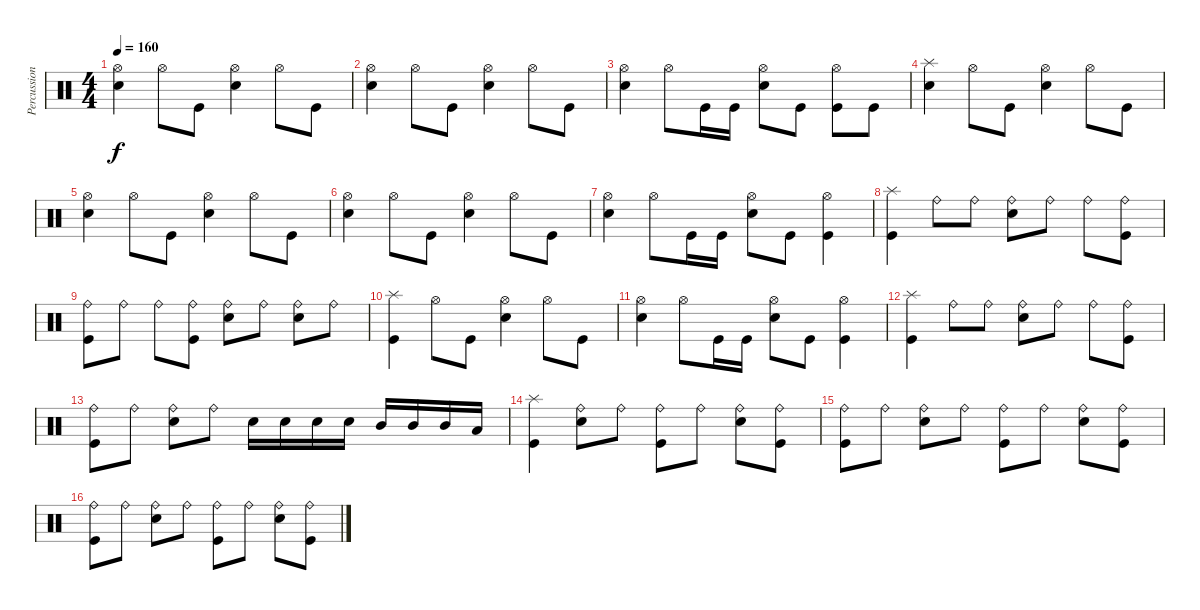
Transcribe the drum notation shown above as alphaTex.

\track ("Percussions" "Percussion") {instrument percussion}
\staff {score}
\articulation defaults
\ts (4 4)
\tempo 160
\clef neutral
\ks c
("Electric Snare (hit)" "Hi-Hat (open)").4{dy f} "Hi-Hat (open)".8 "Kick (hit)".8 ("Electric Snare (hit)" "Hi-Hat (open)").4 "Hi-Hat (open)".8 "Kick (hit)".8 |
("Electric Snare (hit)" "Hi-Hat (open)").4 "Hi-Hat (open)".8 "Kick (hit)".8 ("Electric Snare (hit)" "Hi-Hat (open)").4 "Hi-Hat (open)".8 "Kick (hit)".8 |
("Electric Snare (hit)" "Hi-Hat (open)").4 "Hi-Hat (open)".8 "Kick (hit)".16 "Kick (hit)".16 ("Electric Snare (hit)" "Hi-Hat (open)").8 "Kick (hit)".8 ("Kick (hit)" "Hi-Hat (open)").8 "Kick (hit)".8 |
("Electric Snare (hit)" "Splash (hit)").4 "Hi-Hat (open)".8 "Kick (hit)".8 ("Electric Snare (hit)" "Hi-Hat (open)").4 "Hi-Hat (open)".8 "Kick (hit)".8 |
("Electric Snare (hit)" "Hi-Hat (open)").4 "Hi-Hat (open)".8 "Kick (hit)".8 ("Electric Snare (hit)" "Hi-Hat (open)").4 "Hi-Hat (open)".8 "Kick (hit)".8 |
("Electric Snare (hit)" "Hi-Hat (open)").4 "Hi-Hat (open)".8 "Kick (hit)".8 ("Electric Snare (hit)" "Hi-Hat (open)").4 "Hi-Hat (open)".8 "Kick (hit)".8 |
("Electric Snare (hit)" "Hi-Hat (open)").4 "Hi-Hat (open)".8 "Kick (hit)".16 "Kick (hit)".16 ("Electric Snare (hit)" "Hi-Hat (open)").8 "Kick (hit)".8 ("Kick (hit)" "Hi-Hat (open)").4 |
("Kick (hit)" "Splash (hit)").4 "Ride (bell)".8 "Ride (bell)".8 ("Electric Snare (hit)" "Ride (bell)").8 "Ride (bell)".8 "Ride (bell)".8 ("Kick (hit)" "Ride (bell)").8 |
("Kick (hit)" "Ride (bell)").8 "Ride (bell)".8 "Ride (bell)".8 ("Kick (hit)" "Ride (bell)").8 ("Electric Snare (hit)" "Ride (bell)").8 "Ride (bell)".8 ("Electric Snare (hit)" "Ride (bell)").8 "Ride (bell)".8 |
("Kick (hit)" "Splash (hit)").4 "Hi-Hat (open)".8 "Kick (hit)".8 ("Electric Snare (hit)" "Hi-Hat (open)").4 "Hi-Hat (open)".8 "Kick (hit)".8 |
("Electric Snare (hit)" "Hi-Hat (open)").4 "Hi-Hat (open)".8 "Kick (hit)".16 "Kick (hit)".16 ("Electric Snare (hit)" "Hi-Hat (open)").8 "Kick (hit)".8 ("Kick (hit)" "Hi-Hat (open)").4 |
("Kick (hit)" "Splash (hit)").4 "Ride (bell)".8 "Ride (bell)".8 ("Electric Snare (hit)" "Ride (bell)").8 "Ride (bell)".8 "Ride (bell)".8 ("Kick (hit)" "Ride (bell)").8 |
("Kick (hit)" "Ride (bell)").8 "Ride (bell)".8 ("Electric Snare (hit)" "Ride (bell)").8 "Ride (bell)".8 "Electric Snare (hit)".16 "Electric Snare (hit)".16 "Electric Snare (hit)".16 "Electric Snare (hit)".16 "Mid Tom (hit)".16 "Mid Tom (hit)".16 "Mid Tom (hit)".16 "Low Tom (hit)".16 |
("Kick (hit)" "Splash (hit)").4 ("Electric Snare (hit)" "Ride (bell)").8 "Ride (bell)".8 ("Kick (hit)" "Ride (bell)").8 "Ride (bell)".8 ("Electric Snare (hit)" "Ride (bell)").8 ("Kick (hit)" "Ride (bell)").8 |
("Kick (hit)" "Ride (bell)").8 "Ride (bell)".8 ("Electric Snare (hit)" "Ride (bell)").8 "Ride (bell)".8 ("Kick (hit)" "Ride (bell)").8 "Ride (bell)".8 ("Electric Snare (hit)" "Ride (bell)").8 ("Kick (hit)" "Ride (bell)").8 |
("Kick (hit)" "Ride (bell)").8 "Ride (bell)".8 ("Electric Snare (hit)" "Ride (bell)").8 "Ride (bell)".8 ("Kick (hit)" "Ride (bell)").8 "Ride (bell)".8 ("Electric Snare (hit)" "Ride (bell)").8 ("Kick (hit)" "Ride (bell)").8
